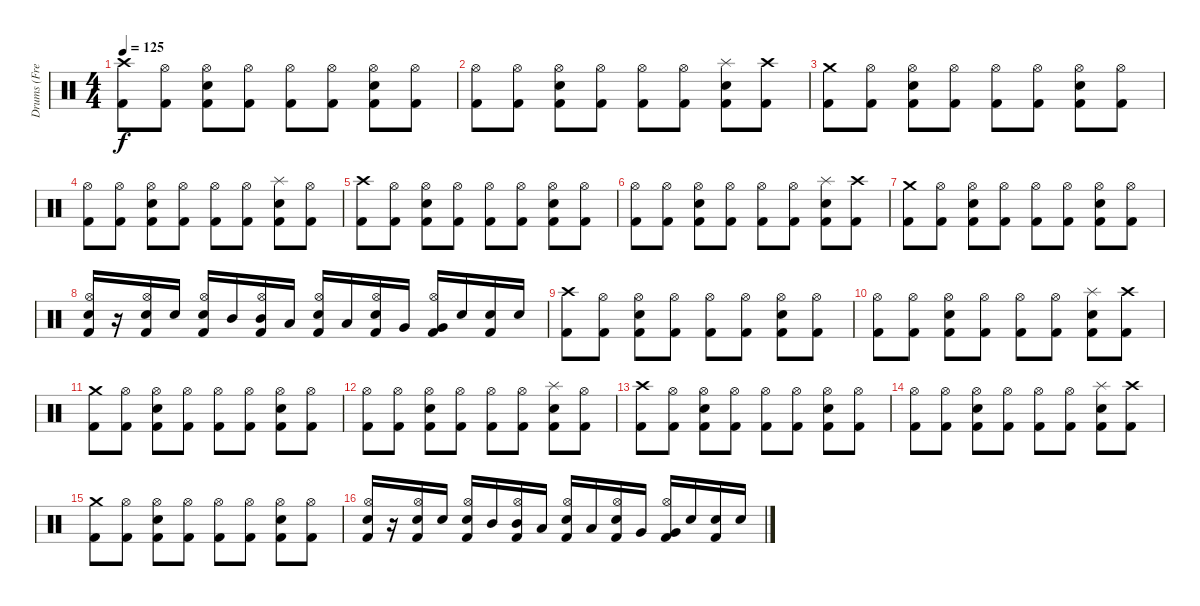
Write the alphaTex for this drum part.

\track ("Drums (Fredrik Andersson)" "Drums (Fre") {instrument percussion}
\staff {score}
\articulation defaults
\ts (4 4)
\tempo 125
\clef neutral
\ks c
("Crash high (hit)" "Kick (hit) 2").8{dy f} ("Hi-Hat (open)" "Kick (hit) 2").8 ("Hi-Hat (open)" "Snare (hit) 2" "Kick (hit) 2").8 ("Hi-Hat (open)" "Kick (hit) 2").8 ("Hi-Hat (open)" "Kick (hit) 2").8 ("Hi-Hat (open)" "Kick (hit) 2").8 ("Hi-Hat (open)" "Snare (hit) 2" "Kick (hit) 2").8 ("Hi-Hat (open)" "Kick (hit) 2").8 |
("Hi-Hat (open)" "Kick (hit) 2").8 ("Hi-Hat (open)" "Kick (hit) 2").8 ("Hi-Hat (open)" "Snare (hit) 2" "Kick (hit) 2").8 ("Hi-Hat (open)" "Kick (hit) 2").8 ("Hi-Hat (open)" "Kick (hit) 2").8 ("Hi-Hat (open)" "Kick (hit) 2").8 ("Splash (hit)" "Snare (hit) 2" "Kick (hit) 2").8 ("Crash high (hit)" "Kick (hit) 2").8 |
("Crash medium (hit)" "Kick (hit) 2").8 ("Hi-Hat (open)" "Kick (hit) 2").8 ("Hi-Hat (open)" "Snare (hit) 2" "Kick (hit) 2").8 ("Hi-Hat (open)" "Kick (hit) 2").8 ("Hi-Hat (open)" "Kick (hit) 2").8 ("Hi-Hat (open)" "Kick (hit) 2").8 ("Hi-Hat (open)" "Snare (hit) 2" "Kick (hit) 2").8 ("Hi-Hat (open)" "Kick (hit) 2").8 |
("Hi-Hat (open)" "Kick (hit) 2").8 ("Hi-Hat (open)" "Kick (hit) 2").8 ("Hi-Hat (open)" "Snare (hit) 2" "Kick (hit) 2").8 ("Hi-Hat (open)" "Kick (hit) 2").8 ("Hi-Hat (open)" "Kick (hit) 2").8 ("Hi-Hat (open)" "Kick (hit) 2").8 ("Splash (hit)" "Snare (hit) 2" "Kick (hit) 2").8 ("Hi-Hat (open)" "Kick (hit) 2").8 |
("Crash high (hit)" "Kick (hit) 2").8 ("Hi-Hat (open)" "Kick (hit) 2").8 ("Hi-Hat (open)" "Snare (hit) 2" "Kick (hit) 2").8 ("Hi-Hat (open)" "Kick (hit) 2").8 ("Hi-Hat (open)" "Kick (hit) 2").8 ("Hi-Hat (open)" "Kick (hit) 2").8 ("Hi-Hat (open)" "Snare (hit) 2" "Kick (hit) 2").8 ("Hi-Hat (open)" "Kick (hit) 2").8 |
("Hi-Hat (open)" "Kick (hit) 2").8 ("Hi-Hat (open)" "Kick (hit) 2").8 ("Hi-Hat (open)" "Snare (hit) 2" "Kick (hit) 2").8 ("Hi-Hat (open)" "Kick (hit) 2").8 ("Hi-Hat (open)" "Kick (hit) 2").8 ("Hi-Hat (open)" "Kick (hit) 2").8 ("Splash (hit)" "Snare (hit) 2" "Kick (hit) 2").8 ("Crash high (hit)" "Kick (hit) 2").8 |
("Crash medium (hit)" "Kick (hit) 2").8 ("Hi-Hat (open)" "Kick (hit) 2").8 ("Hi-Hat (open)" "Snare (hit) 2" "Kick (hit) 2").8 ("Hi-Hat (open)" "Kick (hit) 2").8 ("Hi-Hat (open)" "Kick (hit) 2").8 ("Hi-Hat (open)" "Kick (hit) 2").8 ("Hi-Hat (open)" "Snare (hit) 2" "Kick (hit) 2").8 ("Hi-Hat (open)" "Kick (hit) 2").8 |
("Hi-Hat (open)" "Snare (hit) 2" "Kick (hit) 2").16 r.16 ("Hi-Hat (open)" "Snare (hit) 2" "Kick (hit) 2").16 "Snare (hit) 2".16 ("Hi-Hat (open)" "Snare (hit) 2" "Kick (hit) 2").16 "Mid Tom (hit)".16 ("Hi-Hat (open)" "Mid Tom (hit)" "Kick (hit) 2").16 "Low Tom (hit)".16 ("Hi-Hat (open)" "Snare (hit) 2" "Kick (hit) 2").16 "Low Tom (hit)".16 ("Hi-Hat (open)" "Snare (hit) 2" "Kick (hit) 2").16 "Very Low Tom (hit)".16 ("Hi-Hat (open)" "Very Low Tom (hit)" "Kick (hit) 2").16 "Snare (hit) 2".16 ("Snare (hit) 2" "Kick (hit) 2").16 "Snare (hit) 2".16 |
("Crash high (hit)" "Kick (hit) 2").8 ("Hi-Hat (open)" "Kick (hit) 2").8 ("Hi-Hat (open)" "Snare (hit) 2" "Kick (hit) 2").8 ("Hi-Hat (open)" "Kick (hit) 2").8 ("Hi-Hat (open)" "Kick (hit) 2").8 ("Hi-Hat (open)" "Kick (hit) 2").8 ("Hi-Hat (open)" "Snare (hit) 2" "Kick (hit) 2").8 ("Hi-Hat (open)" "Kick (hit) 2").8 |
("Hi-Hat (open)" "Kick (hit) 2").8 ("Hi-Hat (open)" "Kick (hit) 2").8 ("Hi-Hat (open)" "Snare (hit) 2" "Kick (hit) 2").8 ("Hi-Hat (open)" "Kick (hit) 2").8 ("Hi-Hat (open)" "Kick (hit) 2").8 ("Hi-Hat (open)" "Kick (hit) 2").8 ("Splash (hit)" "Snare (hit) 2" "Kick (hit) 2").8 ("Crash high (hit)" "Kick (hit) 2").8 |
("Crash medium (hit)" "Kick (hit) 2").8 ("Hi-Hat (open)" "Kick (hit) 2").8 ("Hi-Hat (open)" "Snare (hit) 2" "Kick (hit) 2").8 ("Hi-Hat (open)" "Kick (hit) 2").8 ("Hi-Hat (open)" "Kick (hit) 2").8 ("Hi-Hat (open)" "Kick (hit) 2").8 ("Hi-Hat (open)" "Snare (hit) 2" "Kick (hit) 2").8 ("Hi-Hat (open)" "Kick (hit) 2").8 |
("Hi-Hat (open)" "Kick (hit) 2").8 ("Hi-Hat (open)" "Kick (hit) 2").8 ("Hi-Hat (open)" "Snare (hit) 2" "Kick (hit) 2").8 ("Hi-Hat (open)" "Kick (hit) 2").8 ("Hi-Hat (open)" "Kick (hit) 2").8 ("Hi-Hat (open)" "Kick (hit) 2").8 ("Splash (hit)" "Snare (hit) 2" "Kick (hit) 2").8 ("Hi-Hat (open)" "Kick (hit) 2").8 |
("Crash high (hit)" "Kick (hit) 2").8 ("Hi-Hat (open)" "Kick (hit) 2").8 ("Hi-Hat (open)" "Snare (hit) 2" "Kick (hit) 2").8 ("Hi-Hat (open)" "Kick (hit) 2").8 ("Hi-Hat (open)" "Kick (hit) 2").8 ("Hi-Hat (open)" "Kick (hit) 2").8 ("Hi-Hat (open)" "Snare (hit) 2" "Kick (hit) 2").8 ("Hi-Hat (open)" "Kick (hit) 2").8 |
("Hi-Hat (open)" "Kick (hit) 2").8 ("Hi-Hat (open)" "Kick (hit) 2").8 ("Hi-Hat (open)" "Snare (hit) 2" "Kick (hit) 2").8 ("Hi-Hat (open)" "Kick (hit) 2").8 ("Hi-Hat (open)" "Kick (hit) 2").8 ("Hi-Hat (open)" "Kick (hit) 2").8 ("Splash (hit)" "Snare (hit) 2" "Kick (hit) 2").8 ("Crash high (hit)" "Kick (hit) 2").8 |
("Crash medium (hit)" "Kick (hit) 2").8 ("Hi-Hat (open)" "Kick (hit) 2").8 ("Hi-Hat (open)" "Snare (hit) 2" "Kick (hit) 2").8 ("Hi-Hat (open)" "Kick (hit) 2").8 ("Hi-Hat (open)" "Kick (hit) 2").8 ("Hi-Hat (open)" "Kick (hit) 2").8 ("Hi-Hat (open)" "Snare (hit) 2" "Kick (hit) 2").8 ("Hi-Hat (open)" "Kick (hit) 2").8 |
("Hi-Hat (open)" "Snare (hit) 2" "Kick (hit) 2").16 r.16 ("Hi-Hat (open)" "Snare (hit) 2" "Kick (hit) 2").16 "Snare (hit) 2".16 ("Hi-Hat (open)" "Snare (hit) 2" "Kick (hit) 2").16 "Mid Tom (hit)".16 ("Hi-Hat (open)" "Mid Tom (hit)" "Kick (hit) 2").16 "Low Tom (hit)".16 ("Hi-Hat (open)" "Snare (hit) 2" "Kick (hit) 2").16 "Low Tom (hit)".16 ("Hi-Hat (open)" "Snare (hit) 2" "Kick (hit) 2").16 "Very Low Tom (hit)".16 ("Hi-Hat (open)" "Very Low Tom (hit)" "Kick (hit) 2").16 "Snare (hit) 2".16 ("Snare (hit) 2" "Kick (hit) 2").16 "Snare (hit) 2".16
